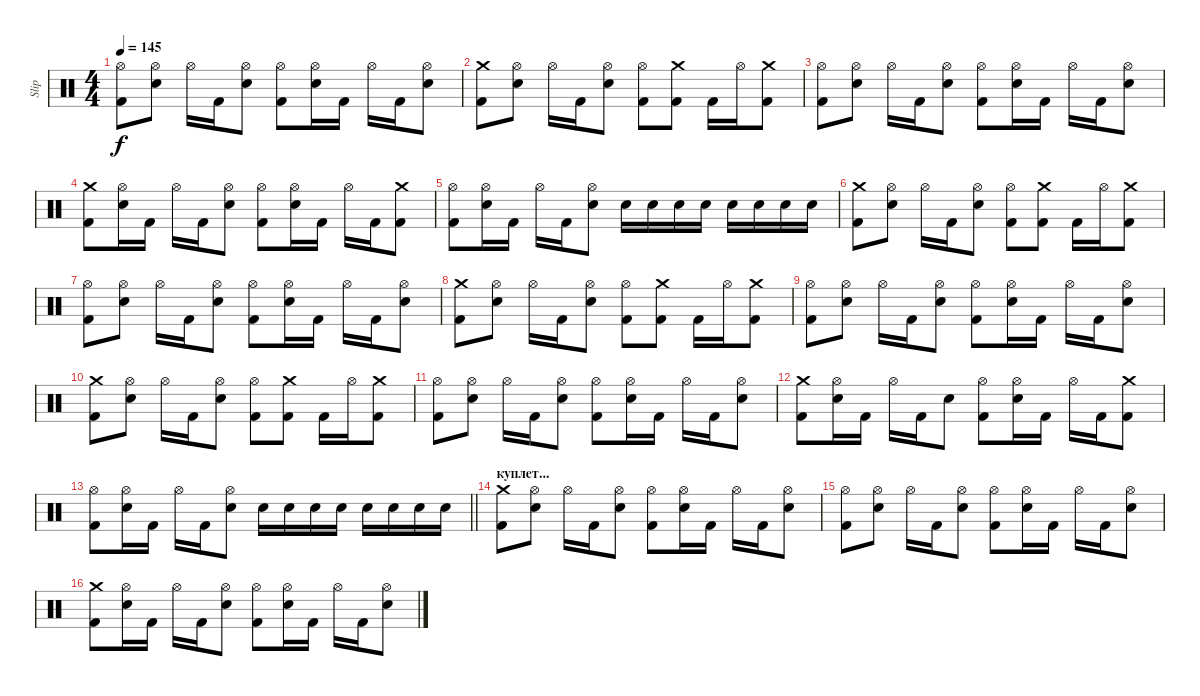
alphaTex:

\track ("Slip" "Slip") {instrument percussion}
\staff {score}
\articulation defaults
\ts (4 4)
\tempo 145
\clef neutral
\ks c
("Kick (hit) 2" "Hi-Hat (open)").8{dy f} ("Electric Snare (hit)" "Hi-Hat (open)").8 "Hi-Hat (open)".16 "Kick (hit) 2".16 ("Electric Snare (hit)" "Hi-Hat (open)").8 ("Kick (hit) 2" "Hi-Hat (open)").8 ("Electric Snare (hit)" "Hi-Hat (open)").16 "Kick (hit) 2".16 "Hi-Hat (open)".16 "Kick (hit) 2".16 ("Electric Snare (hit)" "Hi-Hat (open)").8 |
("Kick (hit) 2" "Crash medium (hit)").8 ("Electric Snare (hit)" "Hi-Hat (open)").8 "Hi-Hat (open)".16 "Kick (hit) 2".16 ("Electric Snare (hit)" "Hi-Hat (open)").8 ("Kick (hit) 2" "Hi-Hat (open)").8 ("Kick (hit) 2" "Crash medium (hit)").8 "Kick (hit) 2".16 "Hi-Hat (open)".16 ("Kick (hit) 2" "Crash medium (hit)").8 |
("Kick (hit) 2" "Hi-Hat (open)").8 ("Electric Snare (hit)" "Hi-Hat (open)").8 "Hi-Hat (open)".16 "Kick (hit) 2".16 ("Electric Snare (hit)" "Hi-Hat (open)").8 ("Kick (hit) 2" "Hi-Hat (open)").8 ("Electric Snare (hit)" "Hi-Hat (open)").16 "Kick (hit) 2".16 "Hi-Hat (open)".16 "Kick (hit) 2".16 ("Electric Snare (hit)" "Hi-Hat (open)").8 |
("Kick (hit) 2" "Crash medium (hit)").8 ("Electric Snare (hit)" "Hi-Hat (open)").16 "Kick (hit) 2".16 "Hi-Hat (open)".16 "Kick (hit) 2".16 ("Electric Snare (hit)" "Hi-Hat (open)").8 ("Kick (hit) 2" "Hi-Hat (open)").8 ("Electric Snare (hit)" "Hi-Hat (open)").16 "Kick (hit) 2".16 "Hi-Hat (open)".16 "Kick (hit) 2".16 ("Kick (hit) 2" "Crash medium (hit)").8 |
("Kick (hit) 2" "Hi-Hat (open)").8 ("Electric Snare (hit)" "Hi-Hat (open)").16 "Kick (hit) 2".16 "Hi-Hat (open)".16 "Kick (hit) 2".16 ("Electric Snare (hit)" "Hi-Hat (open)").8 "Electric Snare (hit)".16 "Electric Snare (hit)".16 "Electric Snare (hit)".16 "Electric Snare (hit)".16 "Electric Snare (hit)".16 "Electric Snare (hit)".16 "Electric Snare (hit)".16 "Electric Snare (hit)".16 |
("Kick (hit) 2" "Crash medium (hit)").8 ("Electric Snare (hit)" "Hi-Hat (open)").8 "Hi-Hat (open)".16 "Kick (hit) 2".16 ("Electric Snare (hit)" "Hi-Hat (open)").8 ("Kick (hit) 2" "Hi-Hat (open)").8 ("Kick (hit) 2" "Crash medium (hit)").8 "Kick (hit) 2".16 "Hi-Hat (open)".16 ("Kick (hit) 2" "Crash medium (hit)").8 |
("Kick (hit) 2" "Hi-Hat (open)").8 ("Electric Snare (hit)" "Hi-Hat (open)").8 "Hi-Hat (open)".16 "Kick (hit) 2".16 ("Electric Snare (hit)" "Hi-Hat (open)").8 ("Kick (hit) 2" "Hi-Hat (open)").8 ("Electric Snare (hit)" "Hi-Hat (open)").16 "Kick (hit) 2".16 "Hi-Hat (open)".16 "Kick (hit) 2".16 ("Electric Snare (hit)" "Hi-Hat (open)").8 |
("Kick (hit) 2" "Crash medium (hit)").8 ("Electric Snare (hit)" "Hi-Hat (open)").8 "Hi-Hat (open)".16 "Kick (hit) 2".16 ("Electric Snare (hit)" "Hi-Hat (open)").8 ("Kick (hit) 2" "Hi-Hat (open)").8 ("Kick (hit) 2" "Crash medium (hit)").8 "Kick (hit) 2".16 "Hi-Hat (open)".16 ("Kick (hit) 2" "Crash medium (hit)").8 |
("Kick (hit) 2" "Hi-Hat (open)").8 ("Electric Snare (hit)" "Hi-Hat (open)").8 "Hi-Hat (open)".16 "Kick (hit) 2".16 ("Electric Snare (hit)" "Hi-Hat (open)").8 ("Kick (hit) 2" "Hi-Hat (open)").8 ("Electric Snare (hit)" "Hi-Hat (open)").16 "Kick (hit) 2".16 "Hi-Hat (open)".16 "Kick (hit) 2".16 ("Electric Snare (hit)" "Hi-Hat (open)").8 |
("Kick (hit) 2" "Crash medium (hit)").8 ("Electric Snare (hit)" "Hi-Hat (open)").8 "Hi-Hat (open)".16 "Kick (hit) 2".16 ("Electric Snare (hit)" "Hi-Hat (open)").8 ("Kick (hit) 2" "Hi-Hat (open)").8 ("Kick (hit) 2" "Crash medium (hit)").8 "Kick (hit) 2".16 "Hi-Hat (open)".16 ("Kick (hit) 2" "Crash medium (hit)").8 |
("Kick (hit) 2" "Hi-Hat (open)").8 ("Electric Snare (hit)" "Hi-Hat (open)").8 "Hi-Hat (open)".16 "Kick (hit) 2".16 ("Electric Snare (hit)" "Hi-Hat (open)").8 ("Kick (hit) 2" "Hi-Hat (open)").8 ("Electric Snare (hit)" "Hi-Hat (open)").16 "Kick (hit) 2".16 "Hi-Hat (open)".16 "Kick (hit) 2".16 ("Electric Snare (hit)" "Hi-Hat (open)").8 |
("Kick (hit) 2" "Crash medium (hit)").8 ("Electric Snare (hit)" "Hi-Hat (open)").16 "Kick (hit) 2".16 "Hi-Hat (open)".16 "Kick (hit) 2".16 "Electric Snare (hit)".8 ("Kick (hit) 2" "Hi-Hat (open)").8 ("Electric Snare (hit)" "Hi-Hat (open)").16 "Kick (hit) 2".16 "Hi-Hat (open)".16 "Kick (hit) 2".16 ("Kick (hit) 2" "Crash medium (hit)").8 |
\barLineRight lightlight
("Kick (hit) 2" "Hi-Hat (open)").8 ("Electric Snare (hit)" "Hi-Hat (open)").16 "Kick (hit) 2".16 "Hi-Hat (open)".16 "Kick (hit) 2".16 ("Electric Snare (hit)" "Hi-Hat (open)").8 "Electric Snare (hit)".16 "Electric Snare (hit)".16 "Electric Snare (hit)".16 "Electric Snare (hit)".16 "Electric Snare (hit)".16 "Electric Snare (hit)".16 "Electric Snare (hit)".16 "Electric Snare (hit)".16 |
\section ("" "куплет...")
("Kick (hit) 2" "Crash medium (hit)").8 ("Electric Snare (hit)" "Hi-Hat (open)").8 "Hi-Hat (open)".16 "Kick (hit) 2".16 ("Electric Snare (hit)" "Hi-Hat (open)").8 ("Kick (hit) 2" "Hi-Hat (open)").8 ("Electric Snare (hit)" "Hi-Hat (open)").16 "Kick (hit) 2".16 "Hi-Hat (open)".16 "Kick (hit) 2".16 ("Electric Snare (hit)" "Hi-Hat (open)").8 |
("Kick (hit) 2" "Hi-Hat (open)").8 ("Electric Snare (hit)" "Hi-Hat (open)").8 "Hi-Hat (open)".16 "Kick (hit) 2".16 ("Electric Snare (hit)" "Hi-Hat (open)").8 ("Kick (hit) 2" "Hi-Hat (open)").8 ("Electric Snare (hit)" "Hi-Hat (open)").16 "Kick (hit) 2".16 "Hi-Hat (open)".16 "Kick (hit) 2".16 ("Electric Snare (hit)" "Hi-Hat (open)").8 |
("Kick (hit) 2" "Crash medium (hit)").8 ("Electric Snare (hit)" "Hi-Hat (open)").16 "Kick (hit) 2".16 "Hi-Hat (open)".16 "Kick (hit) 2".16 ("Electric Snare (hit)" "Hi-Hat (open)").8 ("Kick (hit) 2" "Hi-Hat (open)").8 ("Electric Snare (hit)" "Hi-Hat (open)").16 "Kick (hit) 2".16 "Hi-Hat (open)".16 "Kick (hit) 2".16 ("Electric Snare (hit)" "Hi-Hat (open)").8
